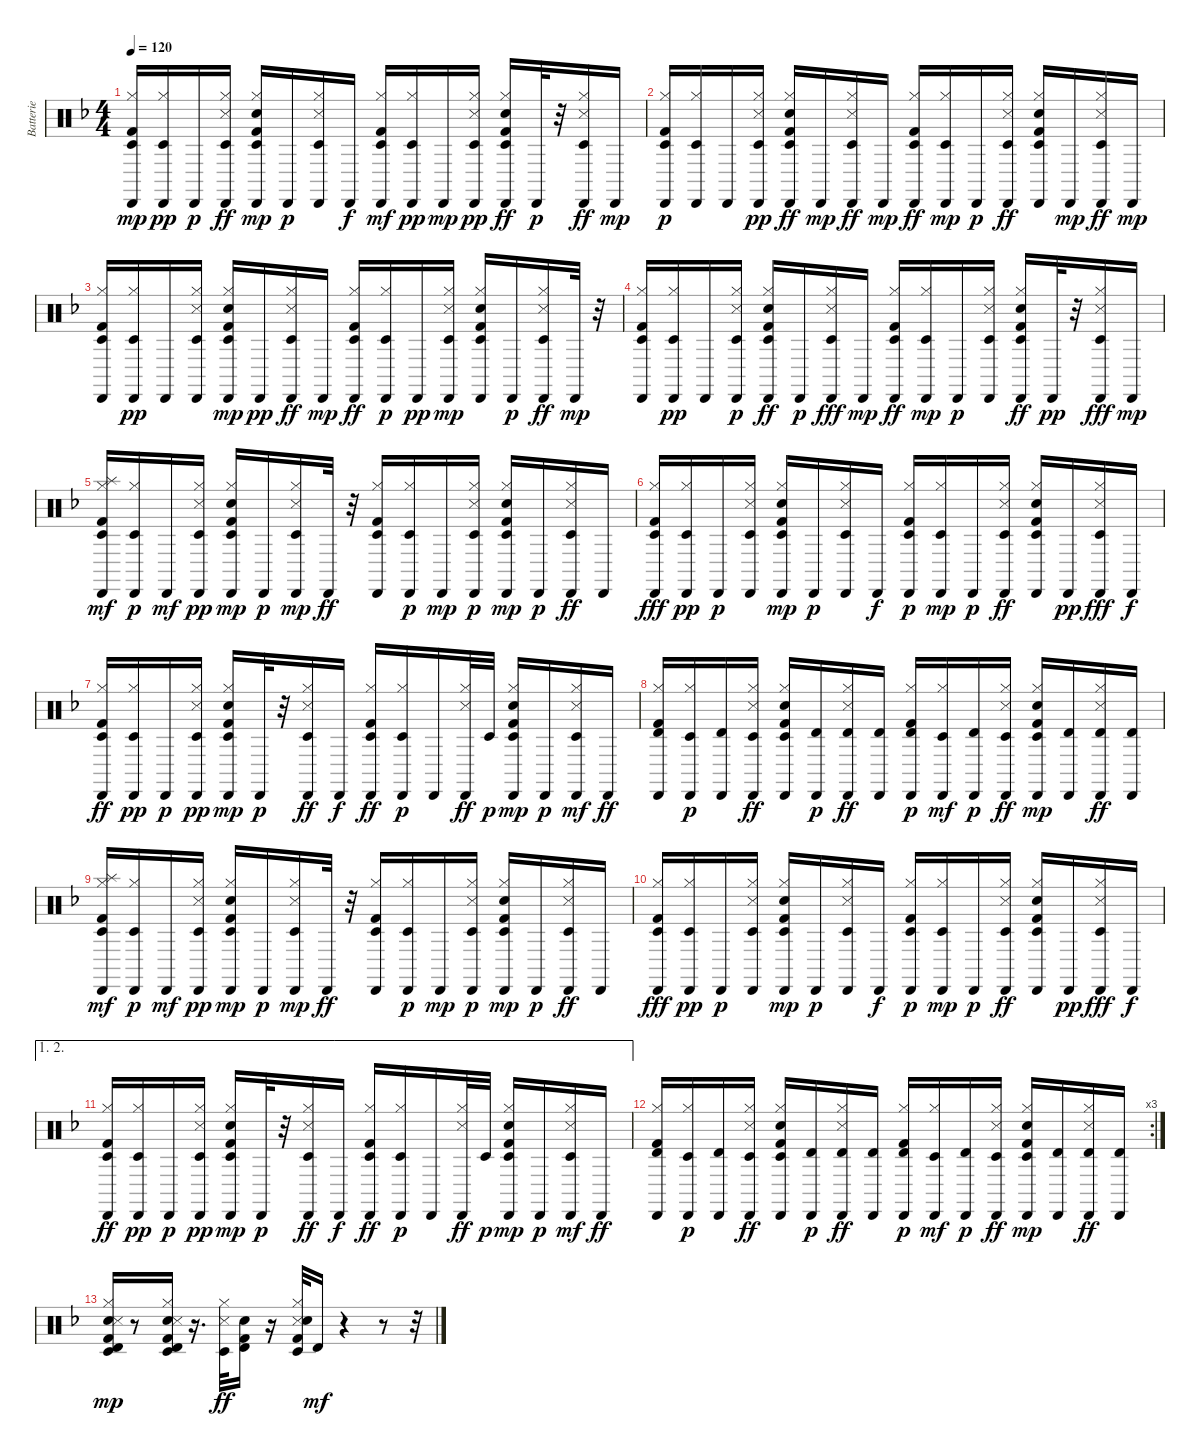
\track ("Batterie" "Batterie") {instrument percussion}
\staff {score}
\articulation defaults
\ts (4 4)
\tempo 120
\clef neutral
\ks f
("Kick (hit) 2" "Cabasa (hit)" "Hi-Hat (closed)" "Timbale low (hit)").16{dy mp} ("Hi-Hat (closed)" "Cabasa (hit)" "Timbale low (hit)").16{dy pp} "Cabasa (hit)".16{dy p} ("Cabasa (hit)" "Snare (side stick) 3" "Timbale low (hit)" "Hi-Hat (closed)").16{dy ff} ("Kick (hit) 2" "Timbale low (hit)" "Hi-Hat (closed)" "Cabasa (hit)" "Hand Clap (hit)").16{dy mp} "Cabasa (hit)".16{dy p} ("Snare (side stick) 3" "Cabasa (hit)" "Hi-Hat (closed)" "Timbale low (hit)").16 "Cabasa (hit)".16{dy f} ("Kick (hit) 2" "Timbale low (hit)" "Cabasa (hit)" "Hi-Hat (closed)").16{dy mf} ("Hi-Hat (closed)" "Timbale low (hit)" "Cabasa (hit)").16{dy pp} "Cabasa (hit)".16{dy mp} ("Cabasa (hit)" "Snare (side stick) 3" "Hi-Hat (closed)" "Timbale low (hit)").16{dy pp} ("Timbale low (hit)" "Hi-Hat (closed)" "Kick (hit) 2" "Cabasa (hit)" "Hand Clap (hit)").16{dy ff} "Cabasa (hit)".32{dy p} r.32 ("Hi-Hat (closed)" "Cabasa (hit)" "Timbale low (hit)" "Snare (side stick) 3").16{dy ff} "Cabasa (hit)".16{dy mp} |
("Kick (hit) 2" "Cabasa (hit)" "Hi-Hat (closed)" "Timbale low (hit)").16{dy p} ("Hi-Hat (closed)" "Timbale low (hit)" "Cabasa (hit)").16 "Cabasa (hit)".16 ("Cabasa (hit)" "Snare (side stick) 3" "Hi-Hat (closed)" "Timbale low (hit)").16{dy pp} ("Timbale low (hit)" "Hi-Hat (closed)" "Cabasa (hit)" "Kick (hit) 2" "Hand Clap (hit)").16{dy ff} "Cabasa (hit)".16{dy mp} ("Timbale low (hit)" "Cabasa (hit)" "Snare (side stick) 3" "Hi-Hat (closed)").16{dy ff} "Cabasa (hit)".16{dy mp} ("Timbale low (hit)" "Cabasa (hit)" "Kick (hit) 2" "Hi-Hat (closed)").16{dy ff} ("Timbale low (hit)" "Hi-Hat (closed)" "Cabasa (hit)").16{dy mp} "Cabasa (hit)".16{dy p} ("Cabasa (hit)" "Snare (side stick) 3" "Timbale low (hit)" "Hi-Hat (closed)").16{dy ff} ("Timbale low (hit)" "Hi-Hat (closed)" "Kick (hit) 2" "Cabasa (hit)" "Hand Clap (hit)").16 "Cabasa (hit)".16{dy mp} ("Cabasa (hit)" "Timbale low (hit)" "Hi-Hat (closed)" "Snare (side stick) 3").16{dy ff} "Cabasa (hit)".16{dy mp} |
("Kick (hit) 2" "Cabasa (hit)" "Hi-Hat (closed)" "Timbale low (hit)").16 ("Hi-Hat (closed)" "Timbale low (hit)" "Cabasa (hit)").16{dy pp} "Cabasa (hit)".16 ("Snare (side stick) 3" "Cabasa (hit)" "Hi-Hat (closed)" "Timbale low (hit)").16 ("Timbale low (hit)" "Kick (hit) 2" "Hi-Hat (closed)" "Cabasa (hit)" "Hand Clap (hit)").16{dy mp} "Cabasa (hit)".16{dy pp} ("Cabasa (hit)" "Timbale low (hit)" "Snare (side stick) 3" "Hi-Hat (closed)").16{dy ff} "Cabasa (hit)".16{dy mp} ("Timbale low (hit)" "Kick (hit) 2" "Cabasa (hit)" "Hi-Hat (closed)").16{dy ff} ("Hi-Hat (closed)" "Timbale low (hit)" "Cabasa (hit)").16{dy p} "Cabasa (hit)".16{dy pp} ("Snare (side stick) 3" "Timbale low (hit)" "Cabasa (hit)" "Hi-Hat (closed)").16{dy mp} ("Timbale low (hit)" "Kick (hit) 2" "Hand Clap (hit)" "Cabasa (hit)" "Hi-Hat (closed)").16 "Cabasa (hit)".16{dy p} ("Cabasa (hit)" "Hi-Hat (closed)" "Snare (side stick) 3" "Timbale low (hit)").16{dy ff} "Cabasa (hit)".32{dy mp} r.32 |
("Kick (hit) 2" "Cabasa (hit)" "Hi-Hat (closed)" "Timbale low (hit)").16 ("Hi-Hat (closed)" "Cabasa (hit)" "Timbale low (hit)").16{dy pp} "Cabasa (hit)".16 ("Cabasa (hit)" "Snare (side stick) 3" "Hi-Hat (closed)" "Timbale low (hit)").16{dy p} ("Timbale low (hit)" "Hi-Hat (closed)" "Kick (hit) 2" "Cabasa (hit)" "Hand Clap (hit)").16{dy ff} "Cabasa (hit)".16{dy p} ("Timbale low (hit)" "Cabasa (hit)" "Hi-Hat (closed)" "Snare (side stick) 3").16{dy fff} "Cabasa (hit)".16{dy mp} ("Timbale low (hit)" "Kick (hit) 2" "Cabasa (hit)" "Hi-Hat (closed)").16{dy ff} ("Hi-Hat (closed)" "Timbale low (hit)" "Cabasa (hit)").16{dy mp} "Cabasa (hit)".16{dy p} ("Hi-Hat (closed)" "Cabasa (hit)" "Snare (side stick) 3" "Timbale low (hit)").16 ("Hi-Hat (closed)" "Timbale low (hit)" "Kick (hit) 2" "Cabasa (hit)" "Hand Clap (hit)").16{dy ff} "Cabasa (hit)".32{dy pp} r.32 ("Cabasa (hit)" "Hi-Hat (closed)" "Timbale low (hit)" "Snare (side stick) 3").16{dy fff} "Cabasa (hit)".16{dy mp} |
("Hi-Hat (closed)" "Splash (hit)" "Kick (hit) 2" "Cabasa (hit)" "Timbale low (hit)").16{dy mf} ("Hi-Hat (closed)" "Cabasa (hit)" "Timbale low (hit)").16{dy p} "Cabasa (hit)".16{dy mf} ("Cabasa (hit)" "Snare (side stick) 3" "Hi-Hat (closed)" "Timbale low (hit)").16{dy pp} ("Hand Clap (hit)" "Hi-Hat (closed)" "Cabasa (hit)" "Kick (hit) 2" "Timbale low (hit)").16{dy mp} "Cabasa (hit)".16{dy p} ("Cabasa (hit)" "Snare (side stick) 3" "Hi-Hat (closed)" "Timbale low (hit)").16{dy mp} "Cabasa (hit)".32{dy ff} r.32 ("Cabasa (hit)" "Kick (hit) 2" "Timbale low (hit)" "Hi-Hat (closed)").16 ("Cabasa (hit)" "Hi-Hat (closed)" "Timbale low (hit)").16{dy p} "Cabasa (hit)".16{dy mp} ("Snare (side stick) 3" "Cabasa (hit)" "Timbale low (hit)" "Hi-Hat (closed)").16{dy p} ("Timbale low (hit)" "Cabasa (hit)" "Hand Clap (hit)" "Kick (hit) 2" "Hi-Hat (closed)").16{dy mp} "Cabasa (hit)".16{dy p} ("Timbale low (hit)" "Cabasa (hit)" "Snare (side stick) 3" "Hi-Hat (closed)").16{dy ff} "Cabasa (hit)".16 |
("Timbale low (hit)" "Cabasa (hit)" "Kick (hit) 2" "Hi-Hat (closed)").16{dy fff} ("Hi-Hat (closed)" "Timbale low (hit)" "Cabasa (hit)").16{dy pp} "Cabasa (hit)".16{dy p} ("Cabasa (hit)" "Snare (side stick) 3" "Timbale low (hit)" "Hi-Hat (closed)").16 ("Timbale low (hit)" "Kick (hit) 2" "Hi-Hat (closed)" "Cabasa (hit)" "Hand Clap (hit)").16{dy mp} "Cabasa (hit)".16{dy p} ("Timbale low (hit)" "Hi-Hat (closed)" "Cabasa (hit)" "Snare (side stick) 3").16 "Cabasa (hit)".16{dy f} ("Timbale low (hit)" "Kick (hit) 2" "Hi-Hat (closed)" "Cabasa (hit)").16{dy p} ("Timbale low (hit)" "Hi-Hat (closed)" "Cabasa (hit)").16{dy mp} "Cabasa (hit)".16{dy p} ("Cabasa (hit)" "Timbale low (hit)" "Hi-Hat (closed)" "Snare (side stick) 3").16{dy ff} ("Timbale low (hit)" "Hi-Hat (closed)" "Cabasa (hit)" "Kick (hit) 2" "Hand Clap (hit)").16 "Cabasa (hit)".16{dy pp} ("Cabasa (hit)" "Timbale low (hit)" "Hi-Hat (closed)" "Snare (side stick) 3").16{dy fff} "Cabasa (hit)".16{dy f} |
("Kick (hit) 2" "Cabasa (hit)" "Timbale low (hit)" "Hi-Hat (closed)").16{dy ff} ("Hi-Hat (closed)" "Timbale low (hit)" "Cabasa (hit)").16{dy pp} "Cabasa (hit)".16{dy p} ("Cabasa (hit)" "Snare (side stick) 3" "Hi-Hat (closed)" "Timbale low (hit)").16{dy pp} ("Kick (hit) 2" "Hi-Hat (closed)" "Timbale low (hit)" "Cabasa (hit)" "Hand Clap (hit)").16{dy mp} "Cabasa (hit)".32{dy p} r.32 ("Cabasa (hit)" "Snare (side stick) 3" "Timbale low (hit)" "Hi-Hat (closed)").16{dy ff} "Cabasa (hit)".16{dy f} ("Kick (hit) 2" "Cabasa (hit)" "Timbale low (hit)" "Hi-Hat (closed)").16{dy ff} ("Hi-Hat (closed)" "Cabasa (hit)" "Timbale low (hit)").16{dy p} "Cabasa (hit)".16 ("Cabasa (hit)" "Snare (side stick) 3" "Hi-Hat (closed)").32{dy ff} "Timbale low (hit)".32{dy p} ("Hi-Hat (closed)" "Kick (hit) 2" "Hand Clap (hit)" "Timbale low (hit)" "Cabasa (hit)").16{dy mp} "Cabasa (hit)".16{dy p} ("Cabasa (hit)" "Snare (side stick) 3" "Hi-Hat (closed)" "Timbale low (hit)").16{dy mf} "Cabasa (hit)".16{dy ff} |
("Timbale high (hit)" "Cabasa (hit)" "Kick (hit) 2" "Hi-Hat (closed)").16 ("Hi-Hat (closed)" "Timbale low (hit)" "Cabasa (hit)").16{dy p} ("Timbale high (hit)" "Cabasa (hit)").16 ("Timbale low (hit)" "Cabasa (hit)" "Snare (side stick) 3" "Hi-Hat (closed)").16{dy ff} ("Hi-Hat (closed)" "Timbale low (hit)" "Cabasa (hit)" "Kick (hit) 2" "Hand Clap (hit)").16 ("Timbale high (hit)" "Cabasa (hit)").16{dy p} ("Timbale high (hit)" "Cabasa (hit)" "Snare (side stick) 3" "Hi-Hat (closed)").16{dy ff} ("Timbale high (hit)" "Cabasa (hit)").16 ("Timbale high (hit)" "Kick (hit) 2" "Cabasa (hit)" "Hi-Hat (closed)").16{dy p} ("Timbale low (hit)" "Cabasa (hit)" "Hi-Hat (closed)").16{dy mf} ("Timbale high (hit)" "Cabasa (hit)").16{dy p} ("Timbale low (hit)" "Cabasa (hit)" "Snare (side stick) 3" "Hi-Hat (closed)").16{dy ff} ("Timbale low (hit)" "Cabasa (hit)" "Kick (hit) 2" "Hi-Hat (closed)" "Hand Clap (hit)").16{dy mp} ("Timbale high (hit)" "Cabasa (hit)").16 ("Timbale high (hit)" "Cabasa (hit)" "Hi-Hat (closed)" "Snare (side stick) 3").16{dy ff} ("Timbale high (hit)" "Cabasa (hit)").16 |
("Hi-Hat (closed)" "Splash (hit)" "Kick (hit) 2" "Cabasa (hit)" "Timbale low (hit)").16{dy mf} ("Hi-Hat (closed)" "Cabasa (hit)" "Timbale low (hit)").16{dy p} "Cabasa (hit)".16{dy mf} ("Cabasa (hit)" "Snare (side stick) 3" "Hi-Hat (closed)" "Timbale low (hit)").16{dy pp} ("Hand Clap (hit)" "Hi-Hat (closed)" "Cabasa (hit)" "Kick (hit) 2" "Timbale low (hit)").16{dy mp} "Cabasa (hit)".16{dy p} ("Cabasa (hit)" "Snare (side stick) 3" "Hi-Hat (closed)" "Timbale low (hit)").16{dy mp} "Cabasa (hit)".32{dy ff} r.32 ("Cabasa (hit)" "Kick (hit) 2" "Timbale low (hit)" "Hi-Hat (closed)").16 ("Cabasa (hit)" "Hi-Hat (closed)" "Timbale low (hit)").16{dy p} "Cabasa (hit)".16{dy mp} ("Snare (side stick) 3" "Cabasa (hit)" "Timbale low (hit)" "Hi-Hat (closed)").16{dy p} ("Timbale low (hit)" "Cabasa (hit)" "Hand Clap (hit)" "Kick (hit) 2" "Hi-Hat (closed)").16{dy mp} "Cabasa (hit)".16{dy p} ("Timbale low (hit)" "Cabasa (hit)" "Snare (side stick) 3" "Hi-Hat (closed)").16{dy ff} "Cabasa (hit)".16 |
("Timbale low (hit)" "Cabasa (hit)" "Kick (hit) 2" "Hi-Hat (closed)").16{dy fff} ("Hi-Hat (closed)" "Timbale low (hit)" "Cabasa (hit)").16{dy pp} "Cabasa (hit)".16{dy p} ("Cabasa (hit)" "Snare (side stick) 3" "Timbale low (hit)" "Hi-Hat (closed)").16 ("Timbale low (hit)" "Kick (hit) 2" "Hi-Hat (closed)" "Cabasa (hit)" "Hand Clap (hit)").16{dy mp} "Cabasa (hit)".16{dy p} ("Timbale low (hit)" "Hi-Hat (closed)" "Cabasa (hit)" "Snare (side stick) 3").16 "Cabasa (hit)".16{dy f} ("Timbale low (hit)" "Kick (hit) 2" "Hi-Hat (closed)" "Cabasa (hit)").16{dy p} ("Timbale low (hit)" "Hi-Hat (closed)" "Cabasa (hit)").16{dy mp} "Cabasa (hit)".16{dy p} ("Cabasa (hit)" "Timbale low (hit)" "Hi-Hat (closed)" "Snare (side stick) 3").16{dy ff} ("Timbale low (hit)" "Hi-Hat (closed)" "Cabasa (hit)" "Kick (hit) 2" "Hand Clap (hit)").16 "Cabasa (hit)".16{dy pp} ("Cabasa (hit)" "Timbale low (hit)" "Hi-Hat (closed)" "Snare (side stick) 3").16{dy fff} "Cabasa (hit)".16{dy f} |
\ae (1 2)
("Kick (hit) 2" "Cabasa (hit)" "Timbale low (hit)" "Hi-Hat (closed)").16{dy ff} ("Hi-Hat (closed)" "Timbale low (hit)" "Cabasa (hit)").16{dy pp} "Cabasa (hit)".16{dy p} ("Cabasa (hit)" "Snare (side stick) 3" "Hi-Hat (closed)" "Timbale low (hit)").16{dy pp} ("Kick (hit) 2" "Hi-Hat (closed)" "Timbale low (hit)" "Cabasa (hit)" "Hand Clap (hit)").16{dy mp} "Cabasa (hit)".32{dy p} r.32 ("Cabasa (hit)" "Snare (side stick) 3" "Timbale low (hit)" "Hi-Hat (closed)").16{dy ff} "Cabasa (hit)".16{dy f} ("Kick (hit) 2" "Cabasa (hit)" "Timbale low (hit)" "Hi-Hat (closed)").16{dy ff} ("Hi-Hat (closed)" "Cabasa (hit)" "Timbale low (hit)").16{dy p} "Cabasa (hit)".16 ("Cabasa (hit)" "Snare (side stick) 3" "Hi-Hat (closed)").32{dy ff} "Timbale low (hit)".32{dy p} ("Hi-Hat (closed)" "Kick (hit) 2" "Hand Clap (hit)" "Timbale low (hit)" "Cabasa (hit)").16{dy mp} "Cabasa (hit)".16{dy p} ("Cabasa (hit)" "Snare (side stick) 3" "Hi-Hat (closed)" "Timbale low (hit)").16{dy mf} "Cabasa (hit)".16{dy ff} |
\rc 3
("Timbale high (hit)" "Cabasa (hit)" "Kick (hit) 2" "Hi-Hat (closed)").16 ("Hi-Hat (closed)" "Timbale low (hit)" "Cabasa (hit)").16{dy p} ("Timbale high (hit)" "Cabasa (hit)").16 ("Timbale low (hit)" "Cabasa (hit)" "Snare (side stick) 3" "Hi-Hat (closed)").16{dy ff} ("Hi-Hat (closed)" "Timbale low (hit)" "Cabasa (hit)" "Kick (hit) 2" "Hand Clap (hit)").16 ("Timbale high (hit)" "Cabasa (hit)").16{dy p} ("Timbale high (hit)" "Cabasa (hit)" "Snare (side stick) 3" "Hi-Hat (closed)").16{dy ff} ("Timbale high (hit)" "Cabasa (hit)").16 ("Timbale high (hit)" "Kick (hit) 2" "Cabasa (hit)" "Hi-Hat (closed)").16{dy p} ("Timbale low (hit)" "Cabasa (hit)" "Hi-Hat (closed)").16{dy mf} ("Timbale high (hit)" "Cabasa (hit)").16{dy p} ("Timbale low (hit)" "Cabasa (hit)" "Snare (side stick) 3" "Hi-Hat (closed)").16{dy ff} ("Timbale low (hit)" "Cabasa (hit)" "Kick (hit) 2" "Hi-Hat (closed)" "Hand Clap (hit)").16{dy mp} ("Timbale high (hit)" "Cabasa (hit)").16 ("Timbale high (hit)" "Cabasa (hit)" "Hi-Hat (closed)" "Snare (side stick) 3").16{dy ff} ("Timbale high (hit)" "Cabasa (hit)").16 |
("Hand Clap (hit)" "Timbale low (hit)" "Kick (hit) 2" "Hi-Hat (closed)" "Snare (side stick) 3" "Timbale high (hit)").16{dy mp} r.8 ("Hand Clap (hit)" "Timbale low (hit)" "Kick (hit) 2" "Hi-Hat (closed)" "Snare (side stick) 3" "Timbale high (hit)").16 r.16{d} ("Snare (side stick) 3" "Timbale low (hit)" "Hi-Hat (closed)").32{dy ff} ("Hand Clap (hit)" "Timbale high (hit)" "Kick (hit) 2").16 r.16 ("Hi-Hat (closed)" "Snare (side stick) 3" "Kick (hit) 2" "Hand Clap (hit)" "Timbale low (hit)").32 "Timbale high (hit)".16{dy mf} r.4 r.8 r.32
